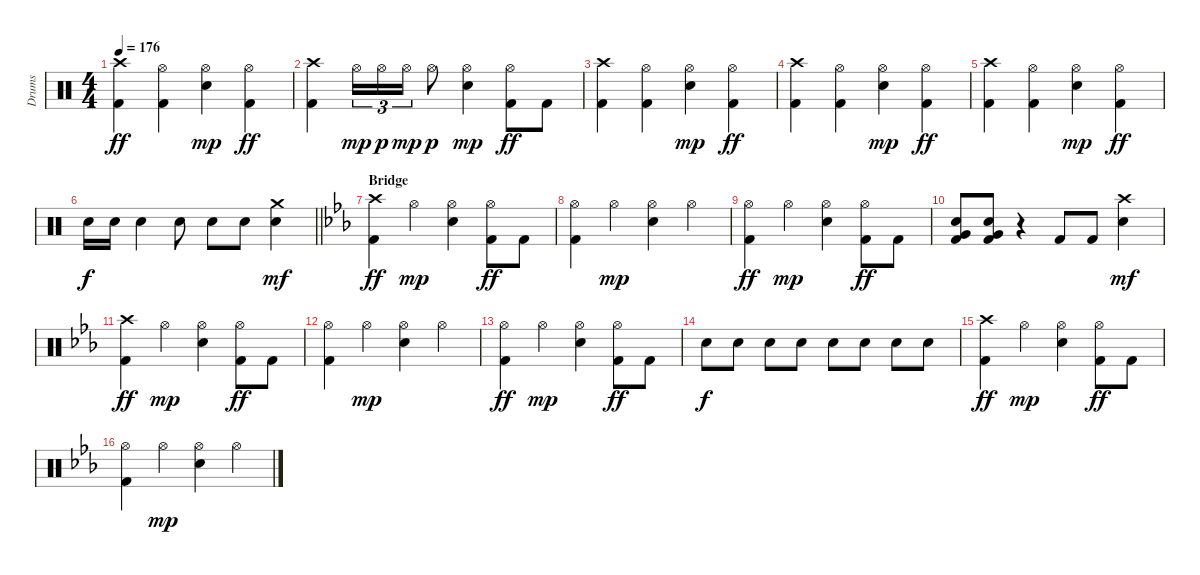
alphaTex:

\track ("Drums" "Drums") {instrument percussion}
\staff {score}
\articulation defaults
\ts (4 4)
\tempo 176
\clef neutral
\ks c
("Crash high (hit)" "Kick (hit) 2").4{dy ff} ("Hi-Hat (open)" "Kick (hit) 2").4 ("Hi-Hat (open)" "Electric Snare (hit)").4{dy mp} ("Hi-Hat (open)" "Kick (hit) 2").4{dy ff} |
("Crash high (hit)" "Kick (hit) 2").4 "Hi-Hat (open)".16{tu (3 2) dy mp} "Hi-Hat (open)".16{tu (3 2) dy p} "Hi-Hat (open)".16{tu (3 2) dy mp} "Hi-Hat (open)".8{dy p} ("Hi-Hat (open)" "Electric Snare (hit)").4{dy mp} ("Hi-Hat (open)" "Kick (hit) 2").8{dy ff} "Kick (hit) 2".8 |
("Crash high (hit)" "Kick (hit) 2").4 ("Hi-Hat (open)" "Kick (hit) 2").4 ("Hi-Hat (open)" "Electric Snare (hit)").4{dy mp} ("Hi-Hat (open)" "Kick (hit) 2").4{dy ff} |
("Crash high (hit)" "Kick (hit) 2").4 ("Hi-Hat (open)" "Kick (hit) 2").4 ("Hi-Hat (open)" "Electric Snare (hit)").4{dy mp} ("Hi-Hat (open)" "Kick (hit) 2").4{dy ff} |
("Crash high (hit)" "Kick (hit) 2").4 ("Hi-Hat (open)" "Kick (hit) 2").4 ("Hi-Hat (open)" "Electric Snare (hit)").4{dy mp} ("Hi-Hat (open)" "Kick (hit) 2").4{dy ff} |
\barLineRight lightlight "Electric Snare (hit)".16{dy f} "Electric Snare (hit)".16 "Electric Snare (hit)".4 "Electric Snare (hit)".8 "Electric Snare (hit)".8 "Electric Snare (hit)".8
("Crash medium (hit)" "Electric Snare (hit)").4{dy mf} |
\section ("" "Bridge")
\ks eb
("Crash high (hit)" "Kick (hit) 2").4{dy ff} "Hi-Hat (open)".4{dy mp} ("Hi-Hat (open)" "Electric Snare (hit)").4 ("Hi-Hat (open)" "Kick (hit) 2").8{dy ff} "Kick (hit) 2".8 |
("Hi-Hat (open)" "Kick (hit) 2").4 "Hi-Hat (open)".4{dy mp} ("Hi-Hat (open)" "Electric Snare (hit)").4 "Hi-Hat (open)".4 |
("Hi-Hat (open)" "Kick (hit) 2").4{dy ff} "Hi-Hat (open)".4{dy mp} ("Hi-Hat (open)" "Electric Snare (hit)").4 ("Hi-Hat (open)" "Kick (hit) 2").8{dy ff} "Kick (hit) 2".8 |
("Very Low Tom (hit)" "Electric Snare (hit)" "Kick (hit) 2").8 ("Very Low Tom (hit)" "Electric Snare (hit)" "Kick (hit) 2").8 r.4 "Kick (hit) 2".8 "Kick (hit) 2".8 ("Crash high (hit)" "Electric Snare (hit)").4{dy mf} |
("Crash high (hit)" "Kick (hit) 2").4{dy ff} "Hi-Hat (open)".4{dy mp} ("Hi-Hat (open)" "Electric Snare (hit)").4 ("Hi-Hat (open)" "Kick (hit) 2").8{dy ff} "Kick (hit) 2".8 |
("Hi-Hat (open)" "Kick (hit) 2").4 "Hi-Hat (open)".4{dy mp} ("Hi-Hat (open)" "Electric Snare (hit)").4 "Hi-Hat (open)".4 |
("Hi-Hat (open)" "Kick (hit) 2").4{dy ff} "Hi-Hat (open)".4{dy mp} ("Hi-Hat (open)" "Electric Snare (hit)").4 ("Hi-Hat (open)" "Kick (hit) 2").8{dy ff} "Kick (hit) 2".8 |
"Electric Snare (hit)".8{dy f} "Electric Snare (hit)".8 "Electric Snare (hit)".8 "Electric Snare (hit)".8 "Electric Snare (hit)".8 "Electric Snare (hit)".8 "Electric Snare (hit)".8 "Electric Snare (hit)".8 |
("Crash high (hit)" "Kick (hit) 2").4{dy ff} "Hi-Hat (open)".4{dy mp} ("Hi-Hat (open)" "Electric Snare (hit)").4 ("Hi-Hat (open)" "Kick (hit) 2").8{dy ff} "Kick (hit) 2".8 |
("Hi-Hat (open)" "Kick (hit) 2").4 "Hi-Hat (open)".4{dy mp} ("Hi-Hat (open)" "Electric Snare (hit)").4 "Hi-Hat (open)".4
